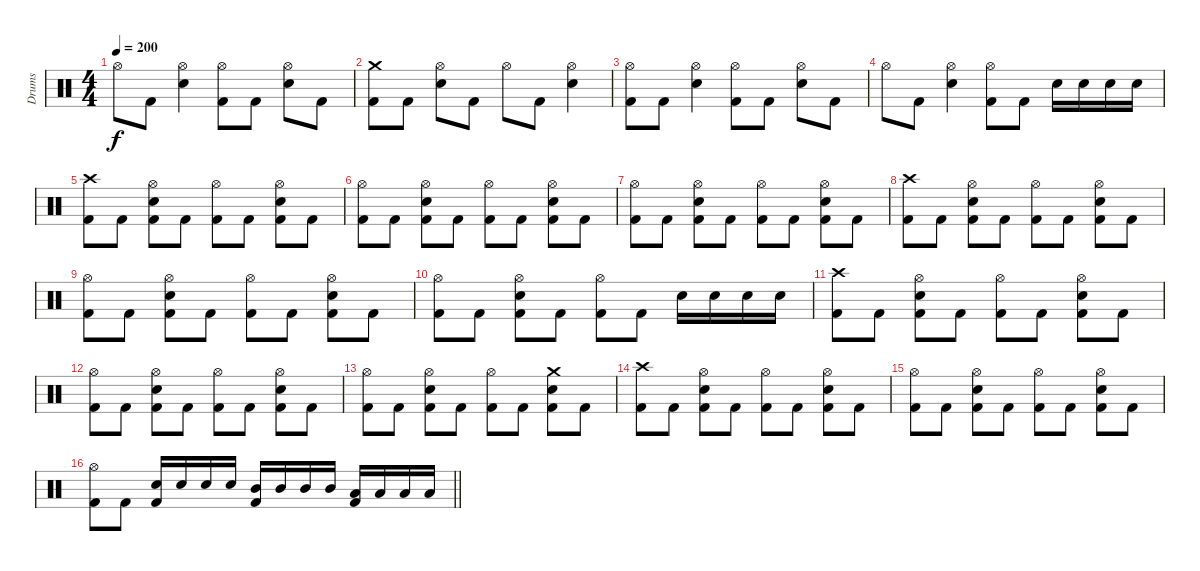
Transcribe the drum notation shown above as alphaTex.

\track ("Drums" "Drums") {instrument percussion}
\staff {score}
\articulation defaults
\ts (4 4)
\tempo 200
\clef neutral
\ks c "Hi-Hat (open)".8{dy f} "Kick (hit) 2".8
("Hi-Hat (open)" "Snare (hit) 2").4 ("Hi-Hat (open)" "Kick (hit) 2").8 "Kick (hit) 2".8 ("Hi-Hat (open)" "Snare (hit) 2").8 "Kick (hit) 2".8 |
("Crash medium (hit)" "Kick (hit) 2").8 "Kick (hit) 2".8 ("Hi-Hat (open)" "Snare (hit) 2").8 "Kick (hit) 2".8 "Hi-Hat (open)".8 "Kick (hit) 2".8 ("Hi-Hat (open)" "Snare (hit) 2").4 |
("Hi-Hat (open)" "Kick (hit) 2").8 "Kick (hit) 2".8 ("Hi-Hat (open)" "Snare (hit) 2").4 ("Hi-Hat (open)" "Kick (hit) 2").8 "Kick (hit) 2".8 ("Hi-Hat (open)" "Snare (hit) 2").8 "Kick (hit) 2".8 |
"Hi-Hat (open)".8 "Kick (hit) 2".8 ("Hi-Hat (open)" "Snare (hit) 2").4 ("Hi-Hat (open)" "Kick (hit) 2").8 "Kick (hit) 2".8 "Snare (hit) 2".16 "Snare (hit) 2".16 "Snare (hit) 2".16 "Snare (hit) 2".16 |
("Crash high (hit)" "Kick (hit) 2").8 "Kick (hit) 2".8 ("Hi-Hat (open)" "Snare (hit) 2" "Kick (hit) 2").8 "Kick (hit) 2".8 ("Hi-Hat (open)" "Kick (hit) 2").8 "Kick (hit) 2".8 ("Hi-Hat (open)" "Snare (hit) 2" "Kick (hit) 2").8 "Kick (hit) 2".8 |
("Hi-Hat (open)" "Kick (hit) 2").8 "Kick (hit) 2".8 ("Hi-Hat (open)" "Snare (hit) 2" "Kick (hit) 2").8 "Kick (hit) 2".8 ("Hi-Hat (open)" "Kick (hit) 2").8 "Kick (hit) 2".8 ("Hi-Hat (open)" "Snare (hit) 2" "Kick (hit) 2").8 "Kick (hit) 2".8 |
("Hi-Hat (open)" "Kick (hit) 2").8 "Kick (hit) 2".8 ("Hi-Hat (open)" "Snare (hit) 2" "Kick (hit) 2").8 "Kick (hit) 2".8 ("Hi-Hat (open)" "Kick (hit) 2").8 "Kick (hit) 2".8 ("Hi-Hat (open)" "Snare (hit) 2" "Kick (hit) 2").8 "Kick (hit) 2".8 |
("Crash high (hit)" "Kick (hit) 2").8 "Kick (hit) 2".8 ("Hi-Hat (open)" "Snare (hit) 2" "Kick (hit) 2").8 "Kick (hit) 2".8 ("Hi-Hat (open)" "Kick (hit) 2").8 "Kick (hit) 2".8 ("Hi-Hat (open)" "Snare (hit) 2" "Kick (hit) 2").8 "Kick (hit) 2".8 |
("Hi-Hat (open)" "Kick (hit) 2").8 "Kick (hit) 2".8 ("Hi-Hat (open)" "Snare (hit) 2" "Kick (hit) 2").8 "Kick (hit) 2".8 ("Hi-Hat (open)" "Kick (hit) 2").8 "Kick (hit) 2".8 ("Hi-Hat (open)" "Snare (hit) 2" "Kick (hit) 2").8 "Kick (hit) 2".8 |
("Hi-Hat (open)" "Kick (hit) 2").8 "Kick (hit) 2".8 ("Hi-Hat (open)" "Snare (hit) 2" "Kick (hit) 2").8 "Kick (hit) 2".8 ("Hi-Hat (open)" "Kick (hit) 2").8 "Kick (hit) 2".8 "Snare (hit) 2".16 "Snare (hit) 2".16 "Snare (hit) 2".16 "Snare (hit) 2".16 |
("Crash high (hit)" "Kick (hit) 2").8 "Kick (hit) 2".8 ("Hi-Hat (open)" "Snare (hit) 2" "Kick (hit) 2").8 "Kick (hit) 2".8 ("Hi-Hat (open)" "Kick (hit) 2").8 "Kick (hit) 2".8 ("Hi-Hat (open)" "Snare (hit) 2" "Kick (hit) 2").8 "Kick (hit) 2".8 |
("Hi-Hat (open)" "Kick (hit) 2").8 "Kick (hit) 2".8 ("Hi-Hat (open)" "Snare (hit) 2" "Kick (hit) 2").8 "Kick (hit) 2".8 ("Hi-Hat (open)" "Kick (hit) 2").8 "Kick (hit) 2".8 ("Hi-Hat (open)" "Snare (hit) 2" "Kick (hit) 2").8 "Kick (hit) 2".8 |
("Hi-Hat (open)" "Kick (hit) 2").8 "Kick (hit) 2".8 ("Hi-Hat (open)" "Snare (hit) 2" "Kick (hit) 2").8 "Kick (hit) 2".8 ("Hi-Hat (open)" "Kick (hit) 2").8 "Kick (hit) 2".8 ("Crash medium (hit)" "Snare (hit) 2" "Kick (hit) 2").8 "Kick (hit) 2".8 |
("Crash high (hit)" "Kick (hit) 2").8 "Kick (hit) 2".8 ("Hi-Hat (open)" "Snare (hit) 2" "Kick (hit) 2").8 "Kick (hit) 2".8 ("Hi-Hat (open)" "Kick (hit) 2").8 "Kick (hit) 2".8 ("Hi-Hat (open)" "Snare (hit) 2" "Kick (hit) 2").8 "Kick (hit) 2".8 |
("Hi-Hat (open)" "Kick (hit) 2").8 "Kick (hit) 2".8 ("Hi-Hat (open)" "Snare (hit) 2" "Kick (hit) 2").8 "Kick (hit) 2".8 ("Hi-Hat (open)" "Kick (hit) 2").8 "Kick (hit) 2".8 ("Hi-Hat (open)" "Snare (hit) 2" "Kick (hit) 2").8 "Kick (hit) 2".8 |
\barLineRight lightlight
("Hi-Hat (open)" "Kick (hit) 2").8 "Kick (hit) 2".8 ("Snare (hit) 2" "Kick (hit) 2").16 "Snare (hit) 2".16 "Snare (hit) 2".16 "Snare (hit) 2".16 ("Mid Tom (hit)" "Kick (hit) 2").16 "Mid Tom (hit)".16 "Mid Tom (hit)".16 "Mid Tom (hit)".16 ("Low Tom (hit)" "Kick (hit) 2").16 "Low Tom (hit)".16 "Low Tom (hit)".16 "Low Tom (hit)".16
